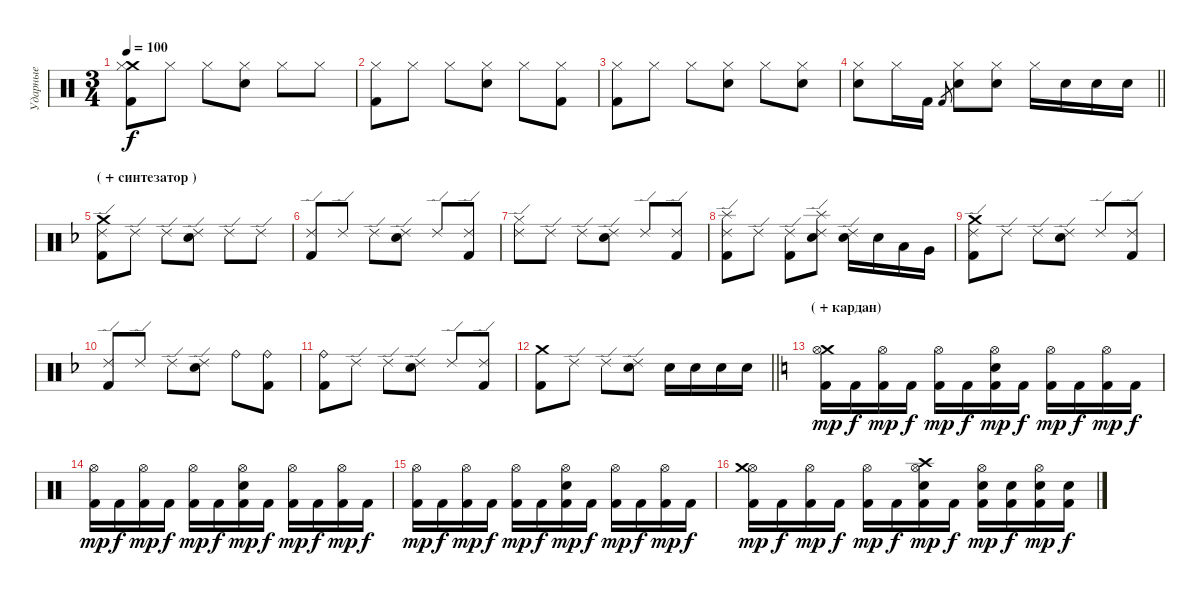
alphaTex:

\track ("Ударные" "Ударные") {instrument percussion}
\staff {score}
\articulation defaults
\ts (3 4)
\tempo 100
\clef neutral
\ks aminor
("Crash medium (hit)" "Kick (hit) 2" "Hi-Hat (closed)").8{dy f} "Hi-Hat (closed)".8 "Hi-Hat (closed)".8 ("Hi-Hat (closed)" "Electric Snare (hit)").8 "Hi-Hat (closed)".8 "Hi-Hat (closed)".8 |
("Kick (hit) 2" "Hi-Hat (closed)").8 "Hi-Hat (closed)".8 "Hi-Hat (closed)".8 ("Hi-Hat (closed)" "Electric Snare (hit)").8 "Hi-Hat (closed)".8 ("Hi-Hat (closed)" "Kick (hit) 2").8 |
("Kick (hit) 2" "Hi-Hat (closed)").8 "Hi-Hat (closed)".8 "Hi-Hat (closed)".8 ("Hi-Hat (closed)" "Electric Snare (hit)").8 "Hi-Hat (closed)".8 ("Hi-Hat (closed)" "Electric Snare (hit)").8 |
\barLineRight lightlight
("Hi-Hat (closed)" "Electric Snare (hit)").8 "Hi-Hat (closed)".16 "Kick (hit) 2".16 "Kick (hit) 2".8{gr} ("Hi-Hat (closed)" "Electric Snare (hit)").8 ("Hi-Hat (closed)" "Electric Snare (hit)").8 "Hi-Hat (closed)".16 "Electric Snare (hit)".16 "Electric Snare (hit)".16 "Electric Snare (hit)".16 |
\section ("" "( + синтезатор )")
\ks dminor
("Crash medium (hit)" "Kick (hit) 2" "Ride (edge) 2").8 "Ride (edge) 2".8 "Ride (edge) 2".8 ("Ride (edge) 2" "Electric Snare (hit)").8 "Ride (edge) 2".8 "Ride (edge) 2".8 |
("Kick (hit) 2" "Ride (edge) 2").8 "Ride (edge) 2".8 "Ride (edge) 2".8 ("Ride (edge) 2" "Electric Snare (hit)").8 "Ride (edge) 2".8 ("Ride (edge) 2" "Kick (hit) 2").8 |
("Ride (edge) 2" "Hi-Hat (closed)").8 "Ride (edge) 2".8 "Ride (edge) 2".8 ("Ride (edge) 2" "Electric Snare (hit)").8 "Ride (edge) 2".8 ("Ride (edge) 2" "Kick (hit) 2").8 |
("Splash (hit)" "Kick (hit) 2" "Ride (edge) 2").8 "Ride (edge) 2".8 ("Ride (edge) 2" "Kick (hit) 2").8 ("Ride (edge) 2" "Electric Snare (hit)" "Splash (hit)").8 ("Ride (edge) 2" "Electric Snare (hit)").16 "Electric Snare (hit)".16 "Low Tom (hit)".16 "Very Low Tom (hit)".16 |
("Crash medium (hit)" "Kick (hit) 2" "Ride (edge) 2").8 "Ride (edge) 2".8 "Ride (edge) 2".8 ("Ride (edge) 2" "Electric Snare (hit)").8 "Ride (edge) 2".8 ("Ride (edge) 2" "Kick (hit) 2").8 |
("Kick (hit) 2" "Ride (edge) 2").8 "Ride (edge) 2".8 "Ride (edge) 2".8 ("Ride (edge) 2" "Electric Snare (hit)").8 "Ride (bell)".8 ("Ride (bell)" "Kick (hit) 2").8 |
("Ride (bell)" "Kick (hit) 2").8 "Ride (edge) 2".8 "Ride (edge) 2".8 ("Ride (edge) 2" "Electric Snare (hit)").8 "Ride (edge) 2".8 ("Ride (edge) 2" "Kick (hit) 2").8 |
\barLineRight lightlight
("Crash medium (hit)" "Kick (hit) 2").8 "Ride (edge) 2".8 "Ride (edge) 2".8 ("Ride (edge) 2" "Electric Snare (hit)").8 "Electric Snare (hit)".16 "Electric Snare (hit)".16 "Electric Snare (hit)".16 "Electric Snare (hit)".16 |
\section ("" "( + кардан)")
\ks aminor
("Crash medium (hit)" "Kick (hit) 2" "Hi-Hat (open)").16{dy mp} "Kick (hit) 2".16{dy f} ("Kick (hit) 2" "Hi-Hat (open)").16{dy mp} "Kick (hit) 2".16{dy f} ("Kick (hit) 2" "Hi-Hat (open)").16{dy mp} "Kick (hit) 2".16{dy f} ("Electric Snare (hit)" "Kick (hit) 2" "Hi-Hat (open)").16{dy mp} "Kick (hit) 2".16{dy f} ("Kick (hit) 2" "Hi-Hat (open)").16{dy mp} "Kick (hit) 2".16{dy f} ("Kick (hit) 2" "Hi-Hat (open)").16{dy mp} "Kick (hit) 2".16{dy f} |
("Kick (hit) 2" "Hi-Hat (open)").16{dy mp} "Kick (hit) 2".16{dy f} ("Kick (hit) 2" "Hi-Hat (open)").16{dy mp} "Kick (hit) 2".16{dy f} ("Kick (hit) 2" "Hi-Hat (open)").16{dy mp} "Kick (hit) 2".16{dy f} ("Electric Snare (hit)" "Kick (hit) 2" "Hi-Hat (open)").16{dy mp} "Kick (hit) 2".16{dy f} ("Kick (hit) 2" "Hi-Hat (open)").16{dy mp} "Kick (hit) 2".16{dy f} ("Kick (hit) 2" "Hi-Hat (open)").16{dy mp} "Kick (hit) 2".16{dy f} |
("Kick (hit) 2" "Hi-Hat (open)").16{dy mp} "Kick (hit) 2".16{dy f} ("Kick (hit) 2" "Hi-Hat (open)").16{dy mp} "Kick (hit) 2".16{dy f} ("Kick (hit) 2" "Hi-Hat (open)").16{dy mp} "Kick (hit) 2".16{dy f} ("Electric Snare (hit)" "Kick (hit) 2" "Hi-Hat (open)").16{dy mp} "Kick (hit) 2".16{dy f} ("Kick (hit) 2" "Hi-Hat (open)").16{dy mp} "Kick (hit) 2".16{dy f} ("Kick (hit) 2" "Hi-Hat (open)").16{dy mp} "Kick (hit) 2".16{dy f} |
("Kick (hit) 2" "Hi-Hat (open)" "Crash medium (hit)").16{dy mp} "Kick (hit) 2".16{dy f} ("Kick (hit) 2" "Hi-Hat (open)").16{dy mp} "Kick (hit) 2".16{dy f} ("Kick (hit) 2" "Hi-Hat (open)").16{dy mp} "Kick (hit) 2".16{dy f} ("Electric Snare (hit)" "Kick (hit) 2" "Hi-Hat (open)" "Crash high (hit)").16{dy mp} "Kick (hit) 2".16{dy f} ("Electric Snare (hit)" "Kick (hit) 2" "Hi-Hat (open)").16{dy mp} ("Electric Snare (hit)" "Kick (hit) 2").16{dy f} ("Electric Snare (hit)" "Kick (hit) 2" "Hi-Hat (open)").16{dy mp} ("Electric Snare (hit)" "Kick (hit) 2").16{dy f}
